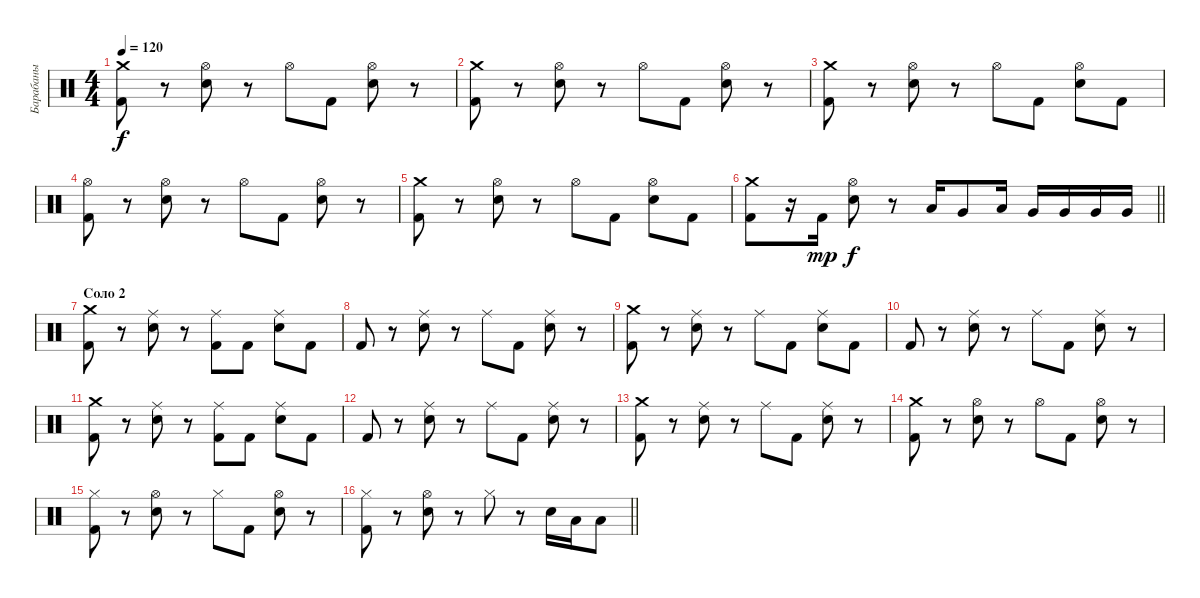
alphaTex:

\track ("Барабаны" "Барабаны") {instrument percussion}
\staff {score}
\articulation defaults
\ts (4 4)
\tempo 120
\clef neutral
\ks c
("Kick (hit) 2" "Crash medium (hit)").8{dy f} r.8 ("Hi-Hat (open)" "Snare (hit) 2").8 r.8 "Hi-Hat (open)".8 "Kick (hit) 2".8 ("Hi-Hat (open)" "Snare (hit) 2").8 r.8 |
("Kick (hit) 2" "Crash medium (hit)").8 r.8 ("Hi-Hat (open)" "Snare (hit) 2").8 r.8 "Hi-Hat (open)".8 "Kick (hit) 2".8 ("Hi-Hat (open)" "Snare (hit) 2").8 r.8 |
("Kick (hit) 2" "Crash medium (hit)").8 r.8 ("Hi-Hat (open)" "Snare (hit) 2").8 r.8 "Hi-Hat (open)".8 "Kick (hit) 2".8 ("Hi-Hat (open)" "Snare (hit) 2").8 "Kick (hit) 2".8 |
("Hi-Hat (open)" "Kick (hit) 2").8 r.8 ("Hi-Hat (open)" "Snare (hit) 2").8 r.8 "Hi-Hat (open)".8 "Kick (hit) 2".8 ("Hi-Hat (open)" "Snare (hit) 2").8 r.8 |
("Kick (hit) 2" "Crash medium (hit)").8 r.8 ("Hi-Hat (open)" "Snare (hit) 2").8 r.8 "Hi-Hat (open)".8 "Kick (hit) 2".8 ("Hi-Hat (open)" "Snare (hit) 2").8 "Kick (hit) 2".8 |
\barLineRight lightlight
("Kick (hit) 2" "Crash medium (hit)").8 r.16 "Kick (hit) 2".16{dy mp} ("Hi-Hat (open)" "Snare (hit) 2").8{dy f} r.8 "Low Tom (hit)".16 "Very Low Tom (hit)".8 "Low Tom (hit)".16 "Very Low Tom (hit)".16 "Very Low Tom (hit)".16 "Very Low Tom (hit)".16 "Very Low Tom (hit)".16 |
\section ("" "Соло 2")
("Kick (hit) 2" "Crash medium (hit)").8 r.8 ("Ride (middle)" "Snare (hit) 2").8 r.8 ("Ride (middle)" "Kick (hit) 2").8 "Kick (hit) 2".8 ("Ride (middle)" "Snare (hit) 2").8 "Kick (hit) 2".8 |
"Kick (hit) 2".8 r.8 ("Ride (middle)" "Snare (hit) 2").8 r.8 "Ride (middle)".8 "Kick (hit) 2".8 ("Ride (middle)" "Snare (hit) 2").8 r.8 |
("Kick (hit) 2" "Crash medium (hit)").8 r.8 ("Ride (middle)" "Snare (hit) 2").8 r.8 "Ride (middle)".8 "Kick (hit) 2".8 ("Ride (middle)" "Snare (hit) 2").8 "Kick (hit) 2".8 |
"Kick (hit) 2".8 r.8 ("Ride (middle)" "Snare (hit) 2").8 r.8 "Ride (middle)".8 "Kick (hit) 2".8 ("Ride (middle)" "Snare (hit) 2").8 r.8 |
("Kick (hit) 2" "Crash medium (hit)").8 r.8 ("Ride (middle)" "Snare (hit) 2").8 r.8 ("Ride (middle)" "Kick (hit) 2").8 "Kick (hit) 2".8 ("Ride (middle)" "Snare (hit) 2").8 "Kick (hit) 2".8 |
"Kick (hit) 2".8 r.8 ("Ride (middle)" "Snare (hit) 2").8 r.8 "Ride (middle)".8 "Kick (hit) 2".8 ("Ride (middle)" "Snare (hit) 2").8 r.8 |
("Kick (hit) 2" "Crash medium (hit)").8 r.8 ("Ride (middle)" "Snare (hit) 2").8 r.8 "Ride (middle)".8 "Kick (hit) 2".8 ("Ride (middle)" "Snare (hit) 2").8 r.8 |
("Kick (hit) 2" "Crash medium (hit)").8 r.8 ("Hi-Hat (open)" "Snare (hit) 2").8 r.8 "Hi-Hat (open)".8 "Kick (hit) 2".8 ("Hi-Hat (open)" "Snare (hit) 2").8 r.8 |
("Hi-Hat (closed)" "Kick (hit) 2").8 r.8 ("Hi-Hat (open)" "Snare (hit) 2").8 r.8 "Hi-Hat (closed)".8 "Kick (hit) 2".8 ("Hi-Hat (open)" "Snare (hit) 2").8 r.8 |
\barLineRight lightlight
("Hi-Hat (closed)" "Kick (hit) 2").8 r.8 ("Hi-Hat (open)" "Snare (hit) 2").8 r.8 "Hi-Hat (closed)".8 r.8 "Snare (hit) 2".16 "Low Tom (hit)".16 "Low Tom (hit)".8
